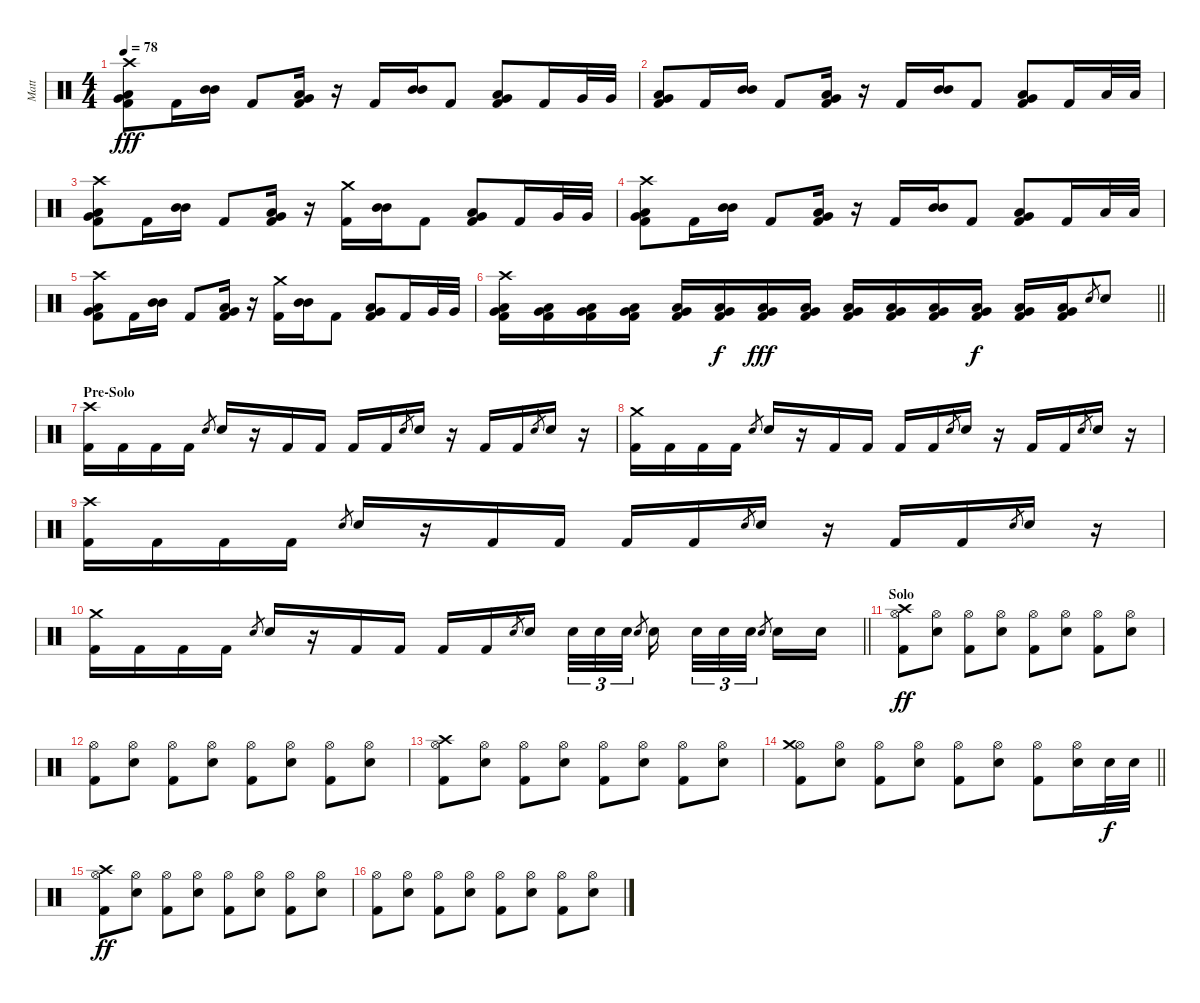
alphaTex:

\track ("Matt" "Matt") {instrument percussion}
\staff {score}
\articulation defaults
\ts (4 4)
\tempo 78
\clef neutral
\ks c
("Crash high (hit)" "Low Floor Tom (hit)" "Very Low Tom (hit)" "Kick (hit) 2").8{dy fff} "Kick (hit) 2".16 ("Mid Tom (hit)" "Mid Tom (hit)").16 "Kick (hit) 2".8 ("Low Floor Tom (hit)" "Very Low Tom (hit)" "Kick (hit) 2").16 r.16 "Kick (hit) 2".16 ("Mid Tom (hit)" "Mid Tom (hit)").16 "Kick (hit) 2".8 ("Low Floor Tom (hit)" "Very Low Tom (hit)" "Kick (hit) 2").8 "Kick (hit) 2".16 "Very Low Tom (hit)".32 "Very Low Tom (hit)".32 |
("Low Floor Tom (hit)" "Very Low Tom (hit)" "Kick (hit) 2").8 "Kick (hit) 2".16 ("Mid Tom (hit)" "Mid Tom (hit)").16 "Kick (hit) 2".8 ("Low Floor Tom (hit)" "Very Low Tom (hit)" "Kick (hit) 2").16 r.16 "Kick (hit) 2".16 ("Mid Tom (hit)" "Mid Tom (hit)").16 "Kick (hit) 2".8 ("Low Floor Tom (hit)" "Very Low Tom (hit)" "Kick (hit) 2").8 "Kick (hit) 2".16 "Low Floor Tom (hit)".32 "Low Floor Tom (hit)".32 |
("Crash high (hit)" "Low Floor Tom (hit)" "Very Low Tom (hit)" "Kick (hit) 2").8 "Kick (hit) 2".16 ("Mid Tom (hit)" "Mid Tom (hit)").16 "Kick (hit) 2".8 ("Low Floor Tom (hit)" "Very Low Tom (hit)" "Kick (hit) 2").16 r.16 ("Crash medium (hit)" "Kick (hit) 2").16 ("Mid Tom (hit)" "Mid Tom (hit)").16 "Kick (hit) 2".8 ("Low Floor Tom (hit)" "Very Low Tom (hit)" "Kick (hit) 2").8 "Kick (hit) 2".16 "Very Low Tom (hit)".32 "Very Low Tom (hit)".32 |
("Crash high (hit)" "Low Floor Tom (hit)" "Very Low Tom (hit)" "Kick (hit) 2").8 "Kick (hit) 2".16 ("Mid Tom (hit)" "Mid Tom (hit)").16 "Kick (hit) 2".8 ("Low Floor Tom (hit)" "Very Low Tom (hit)" "Kick (hit) 2").16 r.16 "Kick (hit) 2".16 ("Mid Tom (hit)" "Mid Tom (hit)").16 "Kick (hit) 2".8 ("Low Floor Tom (hit)" "Very Low Tom (hit)" "Kick (hit) 2").8 "Kick (hit) 2".16 "Low Floor Tom (hit)".32 "Low Floor Tom (hit)".32 |
("Crash high (hit)" "Low Floor Tom (hit)" "Very Low Tom (hit)" "Kick (hit) 2").8 "Kick (hit) 2".16 ("Mid Tom (hit)" "Mid Tom (hit)").16 "Kick (hit) 2".8 ("Low Floor Tom (hit)" "Very Low Tom (hit)" "Kick (hit) 2").16 r.16 ("Crash medium (hit)" "Kick (hit) 2").16 ("Mid Tom (hit)" "Mid Tom (hit)").16 "Kick (hit) 2".8 ("Low Floor Tom (hit)" "Very Low Tom (hit)" "Kick (hit) 2").8 "Kick (hit) 2".16 "Very Low Tom (hit)".32 "Very Low Tom (hit)".32 |
\barLineRight lightlight
("Crash high (hit)" "Low Floor Tom (hit)" "Very Low Tom (hit)" "Kick (hit) 2").16 ("Low Floor Tom (hit)" "Very Low Tom (hit)" "Kick (hit) 2").16 ("Low Floor Tom (hit)" "Very Low Tom (hit)" "Kick (hit) 2").16 ("Low Floor Tom (hit)" "Very Low Tom (hit)" "Kick (hit) 2").16 ("Low Floor Tom (hit)" "Very Low Tom (hit)" "Kick (hit) 2").16 ("Low Floor Tom (hit)" "Very Low Tom (hit)" "Kick (hit) 2").16{dy f} ("Low Floor Tom (hit)" "Very Low Tom (hit)" "Kick (hit) 2").16{dy fff} ("Low Floor Tom (hit)" "Very Low Tom (hit)" "Kick (hit) 2").16 ("Low Floor Tom (hit)" "Very Low Tom (hit)" "Kick (hit) 2").16 ("Low Floor Tom (hit)" "Very Low Tom (hit)" "Kick (hit) 2").16 ("Low Floor Tom (hit)" "Very Low Tom (hit)" "Kick (hit) 2").16 ("Low Floor Tom (hit)" "Very Low Tom (hit)" "Kick (hit) 2").16{dy f} ("Low Floor Tom (hit)" "Very Low Tom (hit)" "Kick (hit) 2").16 ("Low Floor Tom (hit)" "Very Low Tom (hit)" "Kick (hit) 2").16 "Snare (hit) 2".8{gr} "Snare (hit) 2".8 |
\section ("" "Pre-Solo")
("Crash high (hit)" "Kick (hit) 2").16 "Kick (hit) 2".16 "Kick (hit) 2".16 "Kick (hit) 2".16 "Snare (hit) 2".8{gr} "Snare (hit) 2".16 r.16 "Kick (hit) 2".16 "Kick (hit) 2".16 "Kick (hit) 2".16 "Kick (hit) 2".16 "Snare (hit) 2".8{gr} "Snare (hit) 2".16 r.16 "Kick (hit) 2".16 "Kick (hit) 2".16 "Snare (hit) 2".8{gr} "Snare (hit) 2".16 r.16 |
("Crash medium (hit)" "Kick (hit) 2").16 "Kick (hit) 2".16 "Kick (hit) 2".16 "Kick (hit) 2".16 "Snare (hit) 2".8{gr} "Snare (hit) 2".16 r.16 "Kick (hit) 2".16 "Kick (hit) 2".16 "Kick (hit) 2".16 "Kick (hit) 2".16 "Snare (hit) 2".8{gr} "Snare (hit) 2".16 r.16 "Kick (hit) 2".16 "Kick (hit) 2".16 "Snare (hit) 2".8{gr} "Snare (hit) 2".16 r.16 |
("Crash high (hit)" "Kick (hit) 2").16 "Kick (hit) 2".16 "Kick (hit) 2".16 "Kick (hit) 2".16 "Snare (hit) 2".8{gr} "Snare (hit) 2".16 r.16 "Kick (hit) 2".16 "Kick (hit) 2".16 "Kick (hit) 2".16 "Kick (hit) 2".16 "Snare (hit) 2".8{gr} "Snare (hit) 2".16 r.16 "Kick (hit) 2".16 "Kick (hit) 2".16 "Snare (hit) 2".8{gr} "Snare (hit) 2".16 r.16 |
\barLineRight lightlight
("Crash medium (hit)" "Kick (hit) 2").16 "Kick (hit) 2".16 "Kick (hit) 2".16 "Kick (hit) 2".16 "Snare (hit) 2".8{gr} "Snare (hit) 2".16 r.16 "Kick (hit) 2".16 "Kick (hit) 2".16 "Kick (hit) 2".16 "Kick (hit) 2".16 "Snare (hit) 2".8{gr} "Snare (hit) 2".16{beam splitsecondary} "Snare (hit) 2".32{tu (3 2)} "Snare (hit) 2".32{tu (3 2)} "Snare (hit) 2".32{tu (3 2)} "Snare (hit) 2".8{gr} "Snare (hit) 2".16{beam splitsecondary} "Snare (hit) 2".32{tu (3 2)} "Snare (hit) 2".32{tu (3 2)} "Snare (hit) 2".32{tu (3 2)} "Snare (hit) 2".8{gr beam splitsecondary} "Snare (hit) 2".16 "Snare (hit) 2".16 |
\section ("" "Solo")
("Hi-Hat (open)" "Kick (hit) 2" "Crash high (hit)").8{dy ff} ("Hi-Hat (open)" "Snare (hit) 2").8 ("Hi-Hat (open)" "Kick (hit) 2").8 ("Hi-Hat (open)" "Snare (hit) 2").8 ("Hi-Hat (open)" "Kick (hit) 2").8 ("Hi-Hat (open)" "Snare (hit) 2").8 ("Hi-Hat (open)" "Kick (hit) 2").8 ("Hi-Hat (open)" "Snare (hit) 2").8 |
("Hi-Hat (open)" "Kick (hit) 2").8 ("Hi-Hat (open)" "Snare (hit) 2").8 ("Hi-Hat (open)" "Kick (hit) 2").8 ("Hi-Hat (open)" "Snare (hit) 2").8 ("Hi-Hat (open)" "Kick (hit) 2").8 ("Hi-Hat (open)" "Snare (hit) 2").8 ("Hi-Hat (open)" "Kick (hit) 2").8 ("Hi-Hat (open)" "Snare (hit) 2").8 |
("Hi-Hat (open)" "Kick (hit) 2" "Crash high (hit)").8 ("Hi-Hat (open)" "Snare (hit) 2").8 ("Hi-Hat (open)" "Kick (hit) 2").8 ("Hi-Hat (open)" "Snare (hit) 2").8 ("Hi-Hat (open)" "Kick (hit) 2").8 ("Hi-Hat (open)" "Snare (hit) 2").8 ("Hi-Hat (open)" "Kick (hit) 2").8 ("Hi-Hat (open)" "Snare (hit) 2").8 |
\barLineRight lightlight
("Hi-Hat (open)" "Kick (hit) 2" "Crash medium (hit)").8 ("Hi-Hat (open)" "Snare (hit) 2").8 ("Hi-Hat (open)" "Kick (hit) 2").8 ("Hi-Hat (open)" "Snare (hit) 2").8 ("Hi-Hat (open)" "Kick (hit) 2").8 ("Hi-Hat (open)" "Snare (hit) 2").8 ("Hi-Hat (open)" "Kick (hit) 2").8 ("Hi-Hat (open)" "Snare (hit) 2").16 "Snare (hit) 2".32{dy f} "Snare (hit) 2".32 |
("Hi-Hat (open)" "Kick (hit) 2" "Crash high (hit)").8{dy ff} ("Hi-Hat (open)" "Snare (hit) 2").8 ("Hi-Hat (open)" "Kick (hit) 2").8 ("Hi-Hat (open)" "Snare (hit) 2").8 ("Hi-Hat (open)" "Kick (hit) 2").8 ("Hi-Hat (open)" "Snare (hit) 2").8 ("Hi-Hat (open)" "Kick (hit) 2").8 ("Hi-Hat (open)" "Snare (hit) 2").8 |
("Hi-Hat (open)" "Kick (hit) 2").8 ("Hi-Hat (open)" "Snare (hit) 2").8 ("Hi-Hat (open)" "Kick (hit) 2").8 ("Hi-Hat (open)" "Snare (hit) 2").8 ("Hi-Hat (open)" "Kick (hit) 2").8 ("Hi-Hat (open)" "Snare (hit) 2").8 ("Hi-Hat (open)" "Kick (hit) 2").8 ("Hi-Hat (open)" "Snare (hit) 2").8
